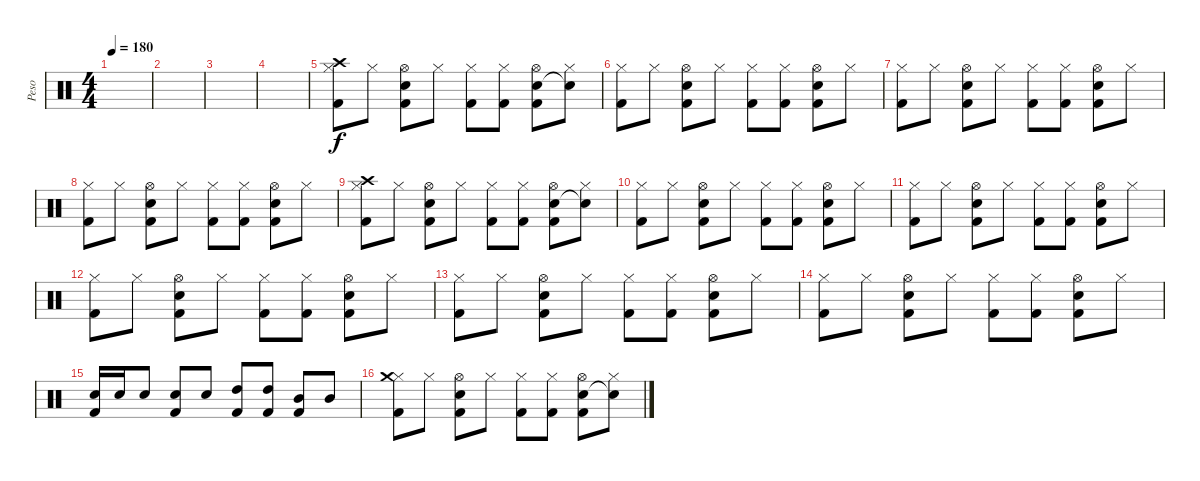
\track ("Peso" "Peso") {instrument percussion}
\staff {score}
\articulation defaults
\ts (4 4)
\tempo 180
\clef neutral
\ks c
|
|
|
|
("Hi-Hat (closed)" "Crash high (hit)" "Kick (hit) 2").8 "Hi-Hat (closed)".8 ("Hi-Hat (open)" "Electric Snare (hit)" "Kick (hit) 2").8 "Hi-Hat (closed)".8 ("Hi-Hat (closed)" "Kick (hit) 2").8 ("Hi-Hat (closed)" "Kick (hit) 2").8 ("Hi-Hat (open)" "Electric Snare (hit)" "Kick (hit) 2").8 ("Hi-Hat (closed)" "Snare (hit)"{t}).8 |
("Hi-Hat (closed)" "Kick (hit) 2").8 "Hi-Hat (closed)".8 ("Hi-Hat (open)" "Electric Snare (hit)" "Kick (hit) 2").8 "Hi-Hat (closed)".8 ("Hi-Hat (closed)" "Kick (hit) 2").8 ("Hi-Hat (closed)" "Kick (hit) 2").8 ("Hi-Hat (open)" "Electric Snare (hit)" "Kick (hit) 2").8 "Hi-Hat (closed)".8 |
("Hi-Hat (closed)" "Kick (hit) 2").8 "Hi-Hat (closed)".8 ("Hi-Hat (open)" "Electric Snare (hit)" "Kick (hit) 2").8 "Hi-Hat (closed)".8 ("Hi-Hat (closed)" "Kick (hit) 2").8 ("Hi-Hat (closed)" "Kick (hit) 2").8 ("Hi-Hat (open)" "Electric Snare (hit)" "Kick (hit) 2").8 "Hi-Hat (closed)".8 |
("Hi-Hat (closed)" "Kick (hit) 2").8 "Hi-Hat (closed)".8 ("Hi-Hat (open)" "Electric Snare (hit)" "Kick (hit) 2").8 "Hi-Hat (closed)".8 ("Hi-Hat (closed)" "Kick (hit) 2").8 ("Hi-Hat (closed)" "Kick (hit) 2").8 ("Hi-Hat (open)" "Electric Snare (hit)" "Kick (hit) 2").8 "Hi-Hat (closed)".8 |
("Hi-Hat (closed)" "Crash high (hit)" "Kick (hit) 2").8 "Hi-Hat (closed)".8 ("Hi-Hat (open)" "Electric Snare (hit)" "Kick (hit) 2").8 "Hi-Hat (closed)".8 ("Hi-Hat (closed)" "Kick (hit) 2").8 ("Hi-Hat (closed)" "Kick (hit) 2").8 ("Hi-Hat (open)" "Electric Snare (hit)" "Kick (hit) 2").8 ("Hi-Hat (closed)" "Snare (hit)"{t}).8 |
("Hi-Hat (closed)" "Kick (hit) 2").8 "Hi-Hat (closed)".8 ("Hi-Hat (open)" "Electric Snare (hit)" "Kick (hit) 2").8 "Hi-Hat (closed)".8 ("Hi-Hat (closed)" "Kick (hit) 2").8 ("Hi-Hat (closed)" "Kick (hit) 2").8 ("Hi-Hat (open)" "Electric Snare (hit)" "Kick (hit) 2").8 "Hi-Hat (closed)".8 |
("Hi-Hat (closed)" "Kick (hit) 2").8 "Hi-Hat (closed)".8 ("Hi-Hat (open)" "Electric Snare (hit)" "Kick (hit) 2").8 "Hi-Hat (closed)".8 ("Hi-Hat (closed)" "Kick (hit) 2").8 ("Hi-Hat (closed)" "Kick (hit) 2").8 ("Hi-Hat (open)" "Electric Snare (hit)" "Kick (hit) 2").8 "Hi-Hat (closed)".8 |
("Hi-Hat (closed)" "Kick (hit) 2").8 "Hi-Hat (closed)".8 ("Hi-Hat (open)" "Electric Snare (hit)" "Kick (hit) 2").8 "Hi-Hat (closed)".8 ("Hi-Hat (closed)" "Kick (hit) 2").8 ("Hi-Hat (closed)" "Kick (hit) 2").8 ("Hi-Hat (open)" "Electric Snare (hit)" "Kick (hit) 2").8 "Hi-Hat (closed)".8 |
("Hi-Hat (closed)" "Kick (hit) 2").8 "Hi-Hat (closed)".8 ("Hi-Hat (open)" "Electric Snare (hit)" "Kick (hit) 2").8 "Hi-Hat (closed)".8 ("Hi-Hat (closed)" "Kick (hit) 2").8 ("Hi-Hat (closed)" "Kick (hit) 2").8 ("Hi-Hat (open)" "Electric Snare (hit)" "Kick (hit) 2").8 "Hi-Hat (closed)".8 |
("Hi-Hat (closed)" "Kick (hit) 2").8 "Hi-Hat (closed)".8 ("Hi-Hat (open)" "Electric Snare (hit)" "Kick (hit) 2").8 "Hi-Hat (closed)".8 ("Hi-Hat (closed)" "Kick (hit) 2").8 ("Hi-Hat (closed)" "Kick (hit) 2").8 ("Hi-Hat (open)" "Electric Snare (hit)" "Kick (hit) 2").8 "Hi-Hat (closed)".8 |
("Electric Snare (hit)" "Kick (hit) 2").16 "Electric Snare (hit)".16 "Electric Snare (hit)".8 ("Electric Snare (hit)" "Kick (hit) 2").8 "Electric Snare (hit)".8 ("High Tom (hit)" "Kick (hit) 2").8 ("High Tom (hit)" "Kick (hit) 2").8 ("Mid Tom (hit)" "Kick (hit) 2").8 "Mid Tom (hit)".8 |
("Hi-Hat (closed)" "Crash medium (hit)" "Kick (hit) 2").8 "Hi-Hat (closed)".8 ("Hi-Hat (open)" "Electric Snare (hit)" "Kick (hit) 2").8 "Hi-Hat (closed)".8 ("Hi-Hat (closed)" "Kick (hit) 2").8 ("Hi-Hat (closed)" "Kick (hit) 2").8 ("Hi-Hat (open)" "Electric Snare (hit)" "Kick (hit) 2").8 ("Hi-Hat (closed)" "Snare (hit)"{t}).8
